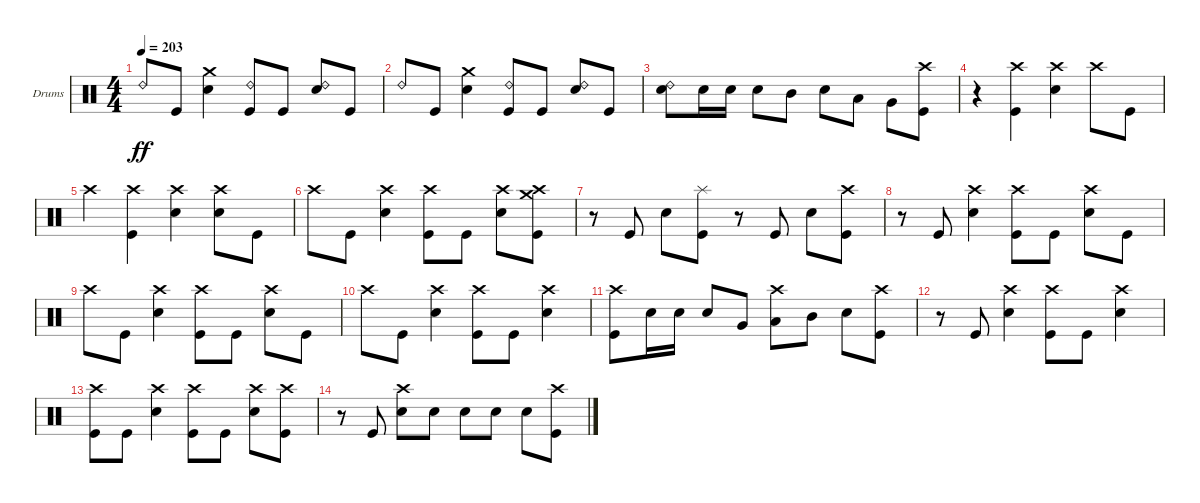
\defaultSystemsLayout 4
\bracketExtendMode groupsimilarinstruments
\firstSystemTrackNameOrientation horizontal
\otherSystemsTrackNameOrientation horizontal
\track ("Brandon Barnes - Drums" "Drums") {instrument percussion}
\staff {score}
\articulation defaults
\ts (4 4)
\tempo 203
\clef neutral
\ks c "Ride (bell) 2".8{dy ff} "Kick (hit)".8
("Snare (hit) 2" "Crash medium (hit)").4 ("Ride (bell) 2" "Kick (hit)").8 "Kick (hit)".8 ("Snare (hit) 2" "Ride (bell) 2").8 "Kick (hit)".8 |
"Ride (bell) 2".8 "Kick (hit)".8 ("Snare (hit) 2" "Crash medium (hit)").4 ("Ride (bell) 2" "Kick (hit)").8 "Kick (hit)".8 ("Snare (hit) 2" "Ride (bell) 2").8 "Kick (hit)".8 |
("Ride (bell) 2" "Snare (hit) 2").8 "Snare (hit) 2".16 "Snare (hit) 2".16 "Snare (hit) 2".8 "Mid Tom (hit)".8 "Snare (hit) 2".8 "Low Tom (hit)".8 "Very Low Tom (hit)".8 ("Kick (hit)" "Crash high (hit)").8 |
r.4 ("Crash high (hit)" "Kick (hit)").4 ("Snare (hit) 2" "Crash high (hit)").4 "Crash high (hit)".8 "Kick (hit)".8 |
"Crash high (hit)".4 ("Crash high (hit)" "Kick (hit)").4 ("Snare (hit) 2" "Crash high (hit)").4 ("Crash high (hit)" "Snare (hit) 2").8 "Kick (hit)".8 |
"Crash high (hit)".8 "Kick (hit)".8 ("Snare (hit) 2" "Crash high (hit)").4 ("Kick (hit)" "Crash high (hit)").8 "Kick (hit)".8 ("Snare (hit) 2" "Crash high (hit)").8 ("Kick (hit)" "Crash high (hit)" "Crash medium (hit)").8 |
r.8 "Kick (hit)".8 "Snare (hit) 2".8 ("Kick (hit)" "Splash (hit)").8 r.8 "Kick (hit)".8 "Snare (hit) 2".8 ("Kick (hit)" "Crash high (hit)").8 |
r.8 "Kick (hit)".8 ("Snare (hit) 2" "Crash high (hit)").4 ("Kick (hit)" "Crash high (hit)").8 "Kick (hit)".8 ("Snare (hit) 2" "Crash high (hit)").8 "Kick (hit)".8 |
"Crash high (hit)".8 "Kick (hit)".8 ("Snare (hit) 2" "Crash high (hit)").4 ("Kick (hit)" "Crash high (hit)").8 "Kick (hit)".8 ("Snare (hit) 2" "Crash high (hit)").8 "Kick (hit)".8 |
"Crash high (hit)".8 "Kick (hit)".8 ("Snare (hit) 2" "Crash high (hit)").4 ("Kick (hit)" "Crash high (hit)").8 "Kick (hit)".8 ("Snare (hit) 2" "Crash high (hit)").4 |
("Crash high (hit)" "Kick (hit)").8 "Snare (hit) 2".16 "Snare (hit) 2".16 "Snare (hit) 2".8 "Very Low Tom (hit)".8 ("Crash high (hit)" "Low Tom (hit)").8 "Mid Tom (hit)".8 "Snare (hit) 2".8 ("Kick (hit)" "Crash high (hit)").8 |
r.8 "Kick (hit)".8 ("Snare (hit) 2" "Crash high (hit)").4 ("Kick (hit)" "Crash high (hit)").8 "Kick (hit)".8 ("Snare (hit) 2" "Crash high (hit)").4 |
("Kick (hit)" "Crash high (hit)").8 "Kick (hit)".8 ("Snare (hit) 2" "Crash high (hit)").4 ("Kick (hit)" "Crash high (hit)").8 "Kick (hit)".8 ("Snare (hit) 2" "Crash high (hit)").8 ("Kick (hit)" "Crash high (hit)").8 |
r.8 "Kick (hit)".8 ("Snare (hit) 2" "Crash high (hit)").8 "Snare (hit) 2".8 "Snare (hit) 2".8 "Snare (hit) 2".8 "Snare (hit) 2".8 ("Kick (hit)" "Crash high (hit)").8
